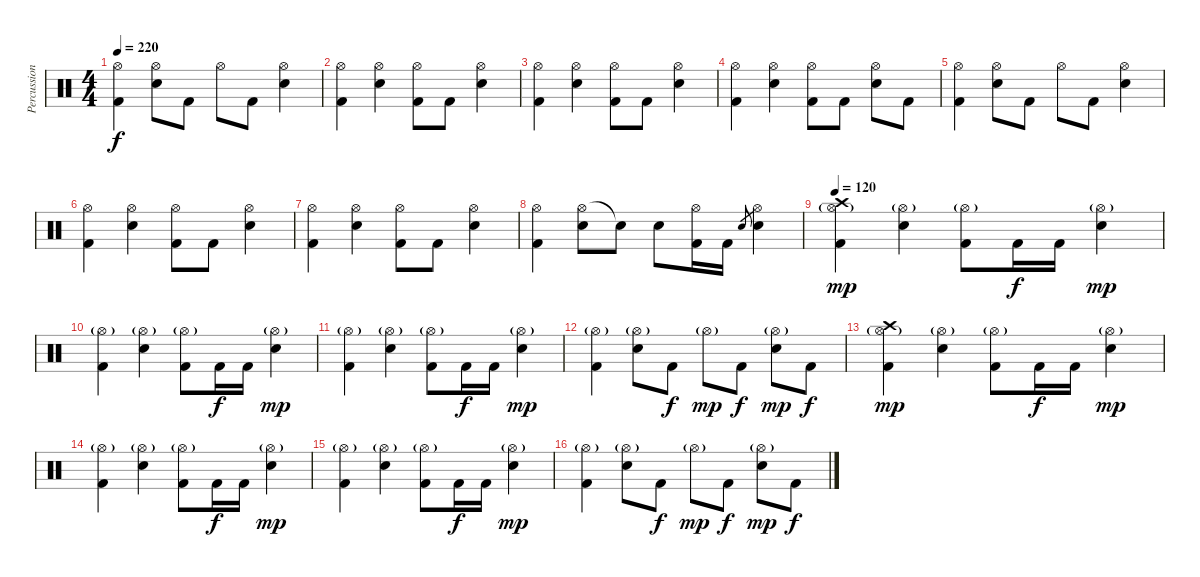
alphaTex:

\track ("Percussion" "Percussion") {instrument percussion}
\staff {score}
\articulation defaults
\ts (4 4)
\tempo 220
\clef neutral
\ks c
("Hi-Hat (open)" "Kick (hit) 2").4{dy f} ("Hi-Hat (open)" "Snare (hit) 2").8 "Kick (hit) 2".8 "Hi-Hat (open)".8 "Kick (hit) 2".8 ("Hi-Hat (open)" "Snare (hit) 2").4 |
("Hi-Hat (open)" "Kick (hit) 2").4 ("Hi-Hat (open)" "Snare (hit) 2").4 ("Hi-Hat (open)" "Kick (hit) 2").8 "Kick (hit) 2".8 ("Hi-Hat (open)" "Snare (hit) 2").4 |
("Hi-Hat (open)" "Kick (hit) 2").4 ("Hi-Hat (open)" "Snare (hit) 2").4 ("Hi-Hat (open)" "Kick (hit) 2").8 "Kick (hit) 2".8 ("Hi-Hat (open)" "Snare (hit) 2").4 |
("Hi-Hat (open)" "Kick (hit) 2").4 ("Hi-Hat (open)" "Snare (hit) 2").4 ("Hi-Hat (open)" "Kick (hit) 2").8 "Kick (hit) 2".8 ("Hi-Hat (open)" "Snare (hit) 2").8 "Kick (hit) 2".8 |
("Hi-Hat (open)" "Kick (hit) 2").4 ("Hi-Hat (open)" "Snare (hit) 2").8 "Kick (hit) 2".8 "Hi-Hat (open)".8 "Kick (hit) 2".8 ("Hi-Hat (open)" "Snare (hit) 2").4 |
("Hi-Hat (open)" "Kick (hit) 2").4 ("Hi-Hat (open)" "Snare (hit) 2").4 ("Hi-Hat (open)" "Kick (hit) 2").8 "Kick (hit) 2".8 ("Hi-Hat (open)" "Snare (hit) 2").4 |
("Hi-Hat (open)" "Kick (hit) 2").4 ("Hi-Hat (open)" "Snare (hit) 2").4 ("Hi-Hat (open)" "Kick (hit) 2").8 "Kick (hit) 2".8 ("Hi-Hat (open)" "Snare (hit) 2").4 |
("Hi-Hat (open)" "Kick (hit) 2").4 ("Hi-Hat (open)" "Snare (hit) 2").8 "Snare (hit)"{t}.8 "Snare (hit) 2".8 ("Hi-Hat (open)" "Kick (hit) 2").16 "Kick (hit) 2".16 "Snare (hit) 2".8{gr} ("Hi-Hat (open)" "Snare (hit) 2").4 |
\tempo 120
("Hi-Hat (open)"{g} "Crash high (hit)" "Kick (hit) 2").4{dy mp} ("Hi-Hat (open)"{g} "Snare (hit) 2").4 ("Hi-Hat (open)"{g} "Kick (hit) 2").8 "Kick (hit) 2".16{dy f} "Kick (hit) 2".16 ("Hi-Hat (open)"{g} "Snare (hit) 2").4{dy mp} |
("Hi-Hat (open)"{g} "Kick (hit) 2").4 ("Hi-Hat (open)"{g} "Snare (hit) 2").4 ("Hi-Hat (open)"{g} "Kick (hit) 2").8 "Kick (hit) 2".16{dy f} "Kick (hit) 2".16 ("Hi-Hat (open)"{g} "Snare (hit) 2").4{dy mp} |
("Hi-Hat (open)"{g} "Kick (hit) 2").4 ("Hi-Hat (open)"{g} "Snare (hit) 2").4 ("Hi-Hat (open)"{g} "Kick (hit) 2").8 "Kick (hit) 2".16{dy f} "Kick (hit) 2".16 ("Hi-Hat (open)"{g} "Snare (hit) 2").4{dy mp} |
("Hi-Hat (open)"{g} "Kick (hit) 2").4 ("Hi-Hat (open)"{g} "Snare (hit) 2").8 "Kick (hit) 2".8{dy f} "Hi-Hat (open)"{g}.8{dy mp} "Kick (hit) 2".8{dy f} ("Hi-Hat (open)"{g} "Snare (hit) 2").8{dy mp} "Kick (hit) 2".8{dy f} |
("Hi-Hat (open)"{g} "Crash high (hit)" "Kick (hit) 2").4{dy mp} ("Hi-Hat (open)"{g} "Snare (hit) 2").4 ("Hi-Hat (open)"{g} "Kick (hit) 2").8 "Kick (hit) 2".16{dy f} "Kick (hit) 2".16 ("Hi-Hat (open)"{g} "Snare (hit) 2").4{dy mp} |
("Hi-Hat (open)"{g} "Kick (hit) 2").4 ("Hi-Hat (open)"{g} "Snare (hit) 2").4 ("Hi-Hat (open)"{g} "Kick (hit) 2").8 "Kick (hit) 2".16{dy f} "Kick (hit) 2".16 ("Hi-Hat (open)"{g} "Snare (hit) 2").4{dy mp} |
("Hi-Hat (open)"{g} "Kick (hit) 2").4 ("Hi-Hat (open)"{g} "Snare (hit) 2").4 ("Hi-Hat (open)"{g} "Kick (hit) 2").8 "Kick (hit) 2".16{dy f} "Kick (hit) 2".16 ("Hi-Hat (open)"{g} "Snare (hit) 2").4{dy mp} |
("Hi-Hat (open)"{g} "Kick (hit) 2").4 ("Hi-Hat (open)"{g} "Snare (hit) 2").8 "Kick (hit) 2".8{dy f} "Hi-Hat (open)"{g}.8{dy mp} "Kick (hit) 2".8{dy f} ("Hi-Hat (open)"{g} "Snare (hit) 2").8{dy mp} "Kick (hit) 2".8{dy f}
